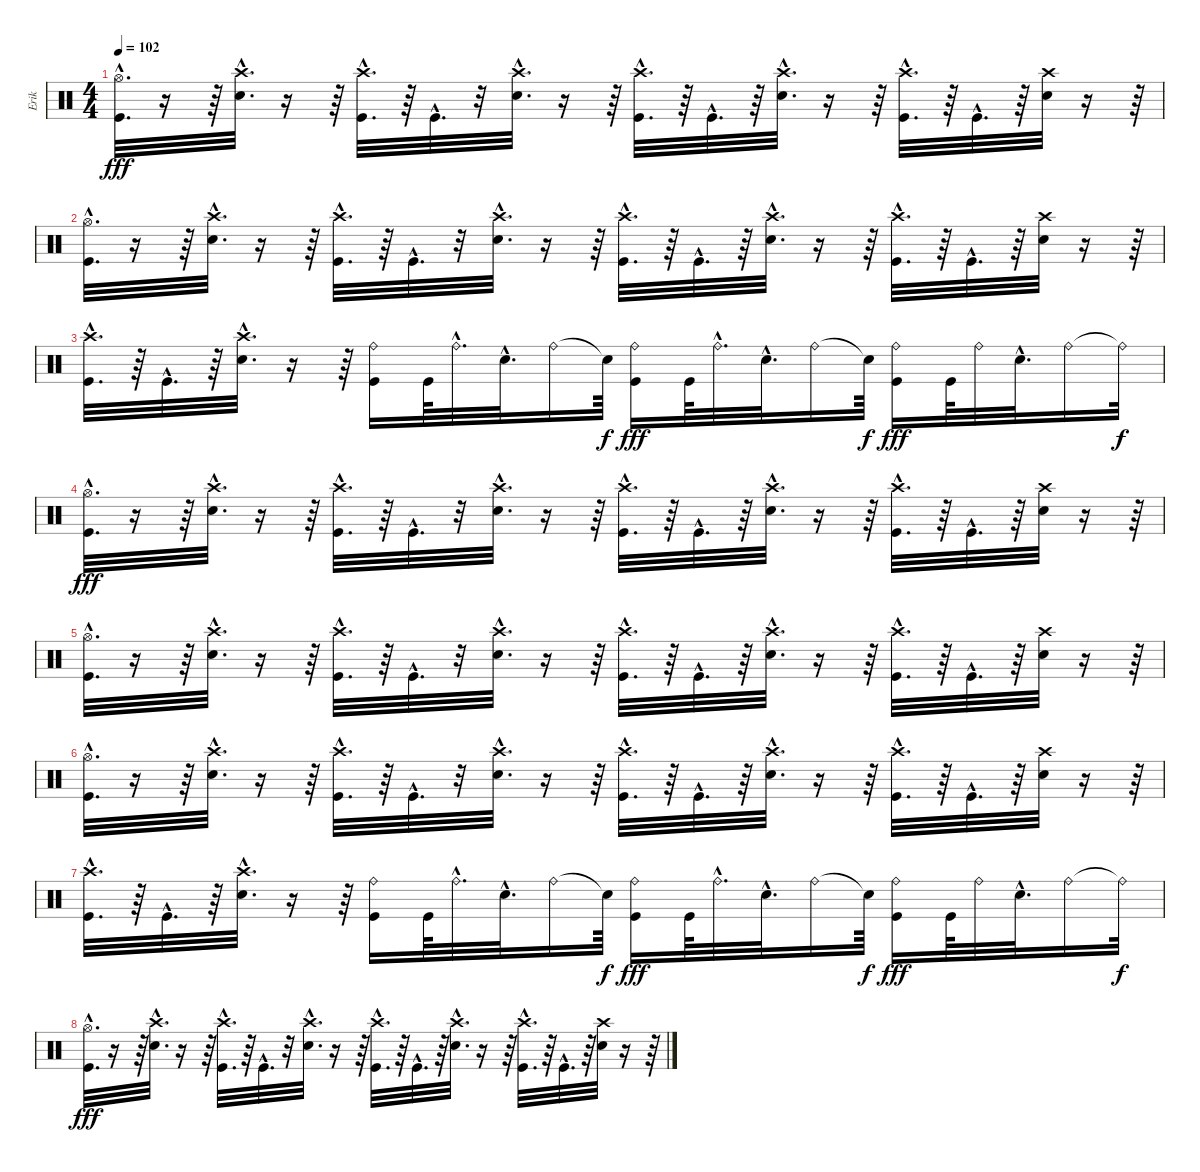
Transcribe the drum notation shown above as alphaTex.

\track ("Erik" "Erik") {instrument percussion}
\staff {score}
\articulation defaults
\ts (4 4)
\tempo 102
\clef neutral
\ks c
("Hi-Hat (open)"{hac} "Kick (hit)"{hac}).32{d dy fff} r.16 r.64 ("Crash high (hit)"{hac} "Electric Snare (hit)"{hac}).32{d} r.16 r.64 ("Kick (hit)"{hac} "Crash high (hit)"{hac}).32{d} r.64 "Kick (hit)"{hac}.32{d} r.32 ("Crash high (hit)"{hac} "Electric Snare (hit)"{hac}).32{d} r.16 r.64 ("Crash high (hit)"{hac} "Kick (hit)"{hac}).32{d} r.64 "Kick (hit)"{hac}.32{d} r.64 ("Crash high (hit)"{hac} "Electric Snare (hit)"{hac}).32{d} r.16 r.64 ("Kick (hit)"{hac} "Crash high (hit)"{hac}).32{d} r.64 "Kick (hit)"{hac}.32{d} r.64 ("Electric Snare (hit)" "Crash high (hit)").32 r.16 r.64 |
("Hi-Hat (open)"{hac} "Kick (hit)"{hac}).32{d} r.16 r.64 ("Crash high (hit)"{hac} "Electric Snare (hit)"{hac}).32{d} r.16 r.64 ("Kick (hit)"{hac} "Crash high (hit)"{hac}).32{d} r.64 "Kick (hit)"{hac}.32{d} r.32 ("Crash high (hit)"{hac} "Electric Snare (hit)"{hac}).32{d} r.16 r.64 ("Crash high (hit)"{hac} "Kick (hit)"{hac}).32{d} r.64 "Kick (hit)"{hac}.32{d} r.64 ("Crash high (hit)"{hac} "Electric Snare (hit)"{hac}).32{d} r.16 r.64 ("Kick (hit)"{hac} "Crash high (hit)"{hac}).32{d} r.64 "Kick (hit)"{hac}.32{d} r.64 ("Electric Snare (hit)" "Crash high (hit)").32 r.16 r.64 |
("Crash high (hit)"{hac} "Kick (hit)"{hac}).32{d} r.64 "Kick (hit)"{hac}.32{d} r.64 ("Crash high (hit)"{hac} "Electric Snare (hit)"{hac}).32{d} r.16 r.64 ("Kick (hit)" "Ride (bell)").16 "Kick (hit)".64 "Ride (bell)"{hac}.32{d} "Electric Snare (hit)"{hac}.32{d} "Ride (bell)".16 "Snare (hit)"{t}.64{dy f} ("Ride (bell)" "Kick (hit)").16{dy fff} "Kick (hit)".64 "Ride (bell)"{hac}.32{d} "Electric Snare (hit)"{hac}.32{d} "Ride (bell)".16 "Snare (hit)"{t}.64{dy f} ("Ride (bell)" "Kick (hit)").16{dy fff} "Kick (hit)".64 "Ride (bell)".32 "Electric Snare (hit)"{hac}.32{d} "Ride (bell)".16 "Ride (bell)"{t}.32{dy f} |
("Hi-Hat (open)"{hac} "Kick (hit)"{hac}).32{d dy fff} r.16 r.64 ("Crash high (hit)"{hac} "Electric Snare (hit)"{hac}).32{d} r.16 r.64 ("Kick (hit)"{hac} "Crash high (hit)"{hac}).32{d} r.64 "Kick (hit)"{hac}.32{d} r.32 ("Crash high (hit)"{hac} "Electric Snare (hit)"{hac}).32{d} r.16 r.64 ("Crash high (hit)"{hac} "Kick (hit)"{hac}).32{d} r.64 "Kick (hit)"{hac}.32{d} r.64 ("Crash high (hit)"{hac} "Electric Snare (hit)"{hac}).32{d} r.16 r.64 ("Kick (hit)"{hac} "Crash high (hit)"{hac}).32{d} r.64 "Kick (hit)"{hac}.32{d} r.64 ("Electric Snare (hit)" "Crash high (hit)").32 r.16 r.64 |
("Hi-Hat (open)"{hac} "Kick (hit)"{hac}).32{d} r.16 r.64 ("Crash high (hit)"{hac} "Electric Snare (hit)"{hac}).32{d} r.16 r.64 ("Kick (hit)"{hac} "Crash high (hit)"{hac}).32{d} r.64 "Kick (hit)"{hac}.32{d} r.32 ("Crash high (hit)"{hac} "Electric Snare (hit)"{hac}).32{d} r.16 r.64 ("Crash high (hit)"{hac} "Kick (hit)"{hac}).32{d} r.64 "Kick (hit)"{hac}.32{d} r.64 ("Crash high (hit)"{hac} "Electric Snare (hit)"{hac}).32{d} r.16 r.64 ("Kick (hit)"{hac} "Crash high (hit)"{hac}).32{d} r.64 "Kick (hit)"{hac}.32{d} r.64 ("Electric Snare (hit)" "Crash high (hit)").32 r.16 r.64 |
("Hi-Hat (open)"{hac} "Kick (hit)"{hac}).32{d} r.16 r.64 ("Crash high (hit)"{hac} "Electric Snare (hit)"{hac}).32{d} r.16 r.64 ("Kick (hit)"{hac} "Crash high (hit)"{hac}).32{d} r.64 "Kick (hit)"{hac}.32{d} r.32 ("Crash high (hit)"{hac} "Electric Snare (hit)"{hac}).32{d} r.16 r.64 ("Crash high (hit)"{hac} "Kick (hit)"{hac}).32{d} r.64 "Kick (hit)"{hac}.32{d} r.64 ("Crash high (hit)"{hac} "Electric Snare (hit)"{hac}).32{d} r.16 r.64 ("Kick (hit)"{hac} "Crash high (hit)"{hac}).32{d} r.64 "Kick (hit)"{hac}.32{d} r.64 ("Electric Snare (hit)" "Crash high (hit)").32 r.16 r.64 |
("Crash high (hit)"{hac} "Kick (hit)"{hac}).32{d} r.64 "Kick (hit)"{hac}.32{d} r.64 ("Crash high (hit)"{hac} "Electric Snare (hit)"{hac}).32{d} r.16 r.64 ("Kick (hit)" "Ride (bell)").16 "Kick (hit)".64 "Ride (bell)"{hac}.32{d} "Electric Snare (hit)"{hac}.32{d} "Ride (bell)".16 "Snare (hit)"{t}.64{dy f} ("Ride (bell)" "Kick (hit)").16{dy fff} "Kick (hit)".64 "Ride (bell)"{hac}.32{d} "Electric Snare (hit)"{hac}.32{d} "Ride (bell)".16 "Snare (hit)"{t}.64{dy f} ("Ride (bell)" "Kick (hit)").16{dy fff} "Kick (hit)".64 "Ride (bell)".32 "Electric Snare (hit)"{hac}.32{d} "Ride (bell)".16 "Ride (bell)"{t}.32{dy f} |
("Hi-Hat (open)"{hac} "Kick (hit)"{hac}).32{d dy fff volume 8} r.16 r.64 ("Crash high (hit)"{hac} "Electric Snare (hit)"{hac}).32{d} r.16 r.64 ("Kick (hit)"{hac} "Crash high (hit)"{hac}).32{d} r.64 "Kick (hit)"{hac}.32{d} r.32 ("Crash high (hit)"{hac} "Electric Snare (hit)"{hac}).32{d} r.16 r.64 ("Crash high (hit)"{hac} "Kick (hit)"{hac}).32{d} r.64 "Kick (hit)"{hac}.32{d} r.64 ("Crash high (hit)"{hac} "Electric Snare (hit)"{hac}).32{d} r.16 r.64 ("Kick (hit)"{hac} "Crash high (hit)"{hac}).32{d} r.64 "Kick (hit)"{hac}.32{d} r.64 ("Electric Snare (hit)" "Crash high (hit)").32 r.16 r.64
